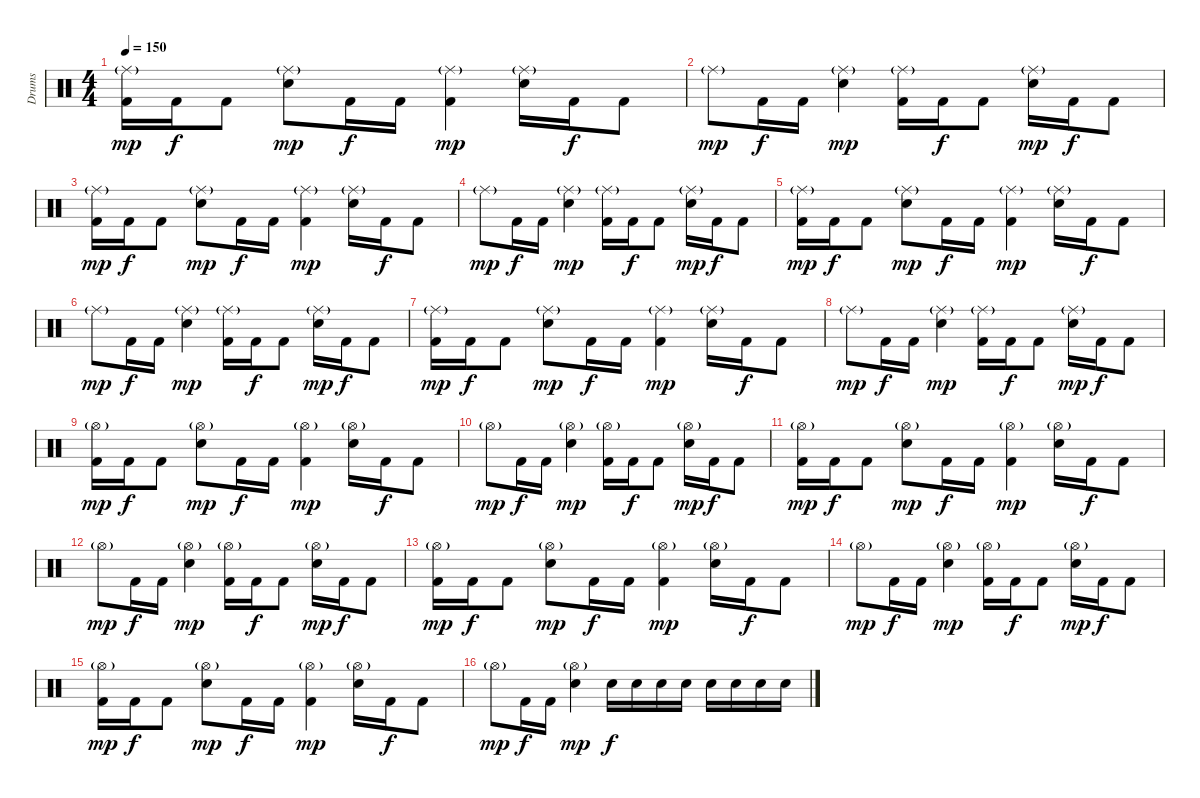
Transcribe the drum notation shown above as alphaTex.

\track ("Drums" "Drums") {instrument percussion}
\staff {score}
\articulation defaults
\ts (4 4)
\tempo 150
\clef neutral
\ks c
("Ride (middle)"{g} "Kick (hit) 2").16{dy mp} "Kick (hit) 2".16{dy f} "Kick (hit) 2".8 ("Ride (middle)"{g} "Electric Snare (hit)").8{dy mp} "Kick (hit) 2".16{dy f} "Kick (hit) 2".16 ("Ride (middle)"{g} "Kick (hit) 2").4{dy mp} ("Ride (middle)"{g} "Electric Snare (hit)").16 "Kick (hit) 2".16{dy f} "Kick (hit) 2".8 |
"Ride (middle)"{g}.8{dy mp} "Kick (hit) 2".16{dy f} "Kick (hit) 2".16 ("Ride (middle)"{g} "Electric Snare (hit)").4{dy mp} ("Ride (middle)"{g} "Kick (hit) 2").16 "Kick (hit) 2".16{dy f} "Kick (hit) 2".8 ("Ride (middle)"{g} "Electric Snare (hit)").16{dy mp} "Kick (hit) 2".16{dy f} "Kick (hit) 2".8 |
("Ride (middle)"{g} "Kick (hit) 2").16{dy mp} "Kick (hit) 2".16{dy f} "Kick (hit) 2".8 ("Ride (middle)"{g} "Electric Snare (hit)").8{dy mp} "Kick (hit) 2".16{dy f} "Kick (hit) 2".16 ("Ride (middle)"{g} "Kick (hit) 2").4{dy mp} ("Ride (middle)"{g} "Electric Snare (hit)").16 "Kick (hit) 2".16{dy f} "Kick (hit) 2".8 |
"Ride (middle)"{g}.8{dy mp} "Kick (hit) 2".16{dy f} "Kick (hit) 2".16 ("Ride (middle)"{g} "Electric Snare (hit)").4{dy mp} ("Ride (middle)"{g} "Kick (hit) 2").16 "Kick (hit) 2".16{dy f} "Kick (hit) 2".8 ("Ride (middle)"{g} "Electric Snare (hit)").16{dy mp} "Kick (hit) 2".16{dy f} "Kick (hit) 2".8 |
("Ride (middle)"{g} "Kick (hit) 2").16{dy mp} "Kick (hit) 2".16{dy f} "Kick (hit) 2".8 ("Ride (middle)"{g} "Electric Snare (hit)").8{dy mp} "Kick (hit) 2".16{dy f} "Kick (hit) 2".16 ("Ride (middle)"{g} "Kick (hit) 2").4{dy mp} ("Ride (middle)"{g} "Electric Snare (hit)").16 "Kick (hit) 2".16{dy f} "Kick (hit) 2".8 |
"Ride (middle)"{g}.8{dy mp} "Kick (hit) 2".16{dy f} "Kick (hit) 2".16 ("Ride (middle)"{g} "Electric Snare (hit)").4{dy mp} ("Ride (middle)"{g} "Kick (hit) 2").16 "Kick (hit) 2".16{dy f} "Kick (hit) 2".8 ("Ride (middle)"{g} "Electric Snare (hit)").16{dy mp} "Kick (hit) 2".16{dy f} "Kick (hit) 2".8 |
("Ride (middle)"{g} "Kick (hit) 2").16{dy mp} "Kick (hit) 2".16{dy f} "Kick (hit) 2".8 ("Ride (middle)"{g} "Electric Snare (hit)").8{dy mp} "Kick (hit) 2".16{dy f} "Kick (hit) 2".16 ("Ride (middle)"{g} "Kick (hit) 2").4{dy mp} ("Ride (middle)"{g} "Electric Snare (hit)").16 "Kick (hit) 2".16{dy f} "Kick (hit) 2".8 |
"Ride (middle)"{g}.8{dy mp} "Kick (hit) 2".16{dy f} "Kick (hit) 2".16 ("Ride (middle)"{g} "Electric Snare (hit)").4{dy mp} ("Ride (middle)"{g} "Kick (hit) 2").16 "Kick (hit) 2".16{dy f} "Kick (hit) 2".8 ("Ride (middle)"{g} "Electric Snare (hit)").16{dy mp} "Kick (hit) 2".16{dy f} "Kick (hit) 2".8 |
("Hi-Hat (open)"{g} "Kick (hit) 2").16{dy mp} "Kick (hit) 2".16{dy f} "Kick (hit) 2".8 ("Hi-Hat (open)"{g} "Electric Snare (hit)").8{dy mp} "Kick (hit) 2".16{dy f} "Kick (hit) 2".16 ("Hi-Hat (open)"{g} "Kick (hit) 2").4{dy mp} ("Hi-Hat (open)"{g} "Electric Snare (hit)").16 "Kick (hit) 2".16{dy f} "Kick (hit) 2".8 |
"Hi-Hat (open)"{g}.8{dy mp} "Kick (hit) 2".16{dy f} "Kick (hit) 2".16 ("Hi-Hat (open)"{g} "Electric Snare (hit)").4{dy mp} ("Hi-Hat (open)"{g} "Kick (hit) 2").16 "Kick (hit) 2".16{dy f} "Kick (hit) 2".8 ("Hi-Hat (open)"{g} "Electric Snare (hit)").16{dy mp} "Kick (hit) 2".16{dy f} "Kick (hit) 2".8 |
("Hi-Hat (open)"{g} "Kick (hit) 2").16{dy mp} "Kick (hit) 2".16{dy f} "Kick (hit) 2".8 ("Hi-Hat (open)"{g} "Electric Snare (hit)").8{dy mp} "Kick (hit) 2".16{dy f} "Kick (hit) 2".16 ("Hi-Hat (open)"{g} "Kick (hit) 2").4{dy mp} ("Hi-Hat (open)"{g} "Electric Snare (hit)").16 "Kick (hit) 2".16{dy f} "Kick (hit) 2".8 |
"Hi-Hat (open)"{g}.8{dy mp} "Kick (hit) 2".16{dy f} "Kick (hit) 2".16 ("Hi-Hat (open)"{g} "Electric Snare (hit)").4{dy mp} ("Hi-Hat (open)"{g} "Kick (hit) 2").16 "Kick (hit) 2".16{dy f} "Kick (hit) 2".8 ("Hi-Hat (open)"{g} "Electric Snare (hit)").16{dy mp} "Kick (hit) 2".16{dy f} "Kick (hit) 2".8 |
("Hi-Hat (open)"{g} "Kick (hit) 2").16{dy mp} "Kick (hit) 2".16{dy f} "Kick (hit) 2".8 ("Hi-Hat (open)"{g} "Electric Snare (hit)").8{dy mp} "Kick (hit) 2".16{dy f} "Kick (hit) 2".16 ("Hi-Hat (open)"{g} "Kick (hit) 2").4{dy mp} ("Hi-Hat (open)"{g} "Electric Snare (hit)").16 "Kick (hit) 2".16{dy f} "Kick (hit) 2".8 |
"Hi-Hat (open)"{g}.8{dy mp} "Kick (hit) 2".16{dy f} "Kick (hit) 2".16 ("Hi-Hat (open)"{g} "Electric Snare (hit)").4{dy mp} ("Hi-Hat (open)"{g} "Kick (hit) 2").16 "Kick (hit) 2".16{dy f} "Kick (hit) 2".8 ("Hi-Hat (open)"{g} "Electric Snare (hit)").16{dy mp} "Kick (hit) 2".16{dy f} "Kick (hit) 2".8 |
("Hi-Hat (open)"{g} "Kick (hit) 2").16{dy mp} "Kick (hit) 2".16{dy f} "Kick (hit) 2".8 ("Hi-Hat (open)"{g} "Electric Snare (hit)").8{dy mp} "Kick (hit) 2".16{dy f} "Kick (hit) 2".16 ("Hi-Hat (open)"{g} "Kick (hit) 2").4{dy mp} ("Hi-Hat (open)"{g} "Electric Snare (hit)").16 "Kick (hit) 2".16{dy f} "Kick (hit) 2".8 |
"Hi-Hat (open)"{g}.8{dy mp} "Kick (hit) 2".16{dy f} "Kick (hit) 2".16 ("Hi-Hat (open)"{g} "Electric Snare (hit)").4{dy mp} "Electric Snare (hit)".16{dy f} "Electric Snare (hit)".16 "Electric Snare (hit)".16 "Electric Snare (hit)".16 "Electric Snare (hit)".16 "Electric Snare (hit)".16 "Electric Snare (hit)".16 "Electric Snare (hit)".16
